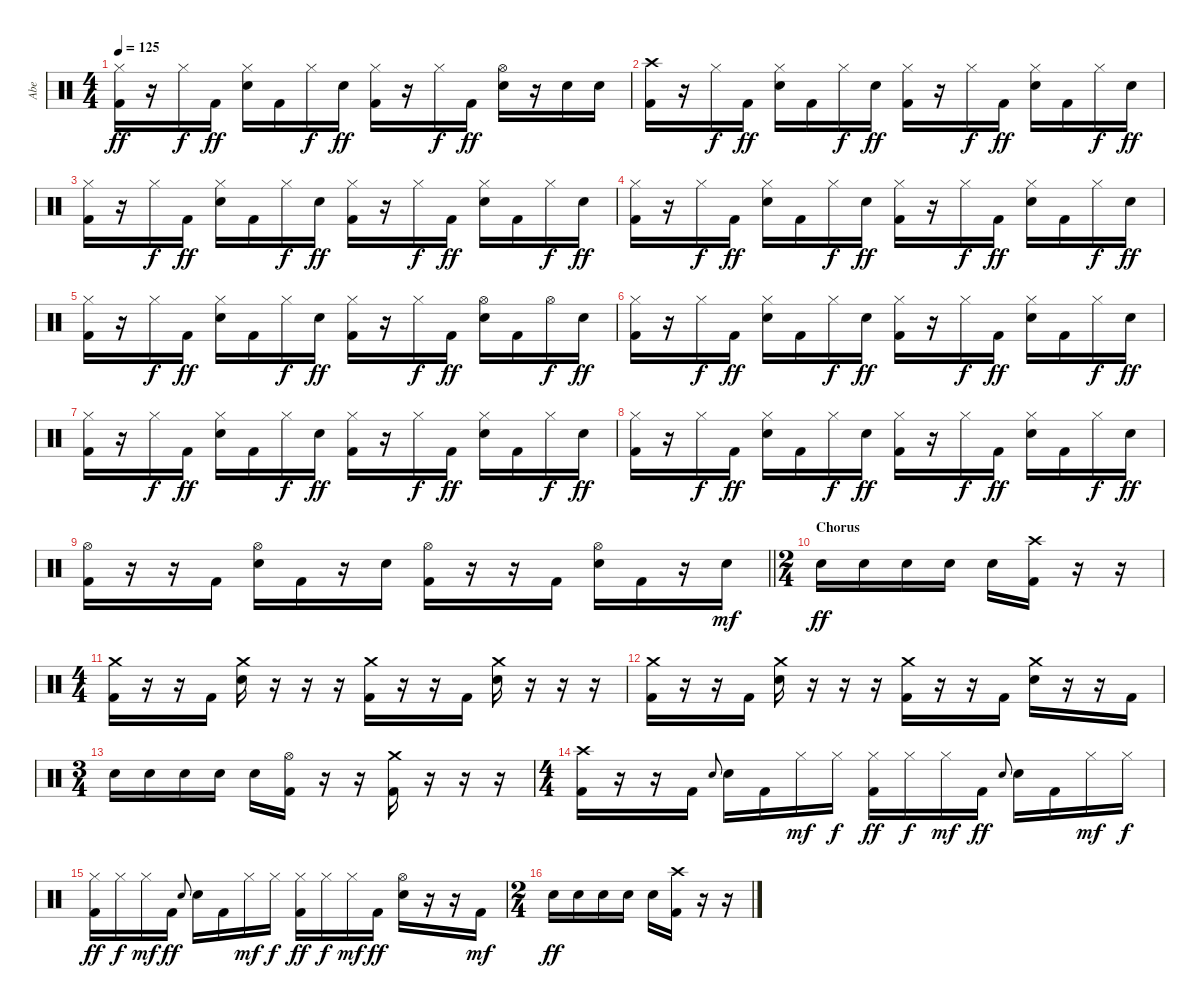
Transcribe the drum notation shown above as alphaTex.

\track ("Abe" "Abe") {instrument percussion}
\staff {score}
\articulation defaults
\ts (4 4)
\tempo 125
\clef neutral
\ks c
("Hi-Hat (closed)" "Kick (hit) 2").16{dy ff} r.16 "Hi-Hat (closed)".16{dy f} "Kick (hit) 2".16{dy ff} ("Hi-Hat (closed)" "Electric Snare (hit)").16 "Kick (hit) 2".16 "Hi-Hat (closed)".16{dy f} "Electric Snare (hit)".16{dy ff} ("Hi-Hat (closed)" "Kick (hit) 2").16 r.16 "Hi-Hat (closed)".16{dy f} "Kick (hit) 2".16{dy ff} ("Hi-Hat (open)" "Electric Snare (hit)").16 r.16 "Electric Snare (hit)".16 "Electric Snare (hit)".16 |
("Crash high (hit)" "Kick (hit) 2").16 r.16 "Hi-Hat (closed)".16{dy f} "Kick (hit) 2".16{dy ff} ("Hi-Hat (closed)" "Electric Snare (hit)").16 "Kick (hit) 2".16 "Hi-Hat (closed)".16{dy f} "Electric Snare (hit)".16{dy ff} ("Hi-Hat (closed)" "Kick (hit) 2").16 r.16 "Hi-Hat (closed)".16{dy f} "Kick (hit) 2".16{dy ff} ("Hi-Hat (closed)" "Electric Snare (hit)").16 "Kick (hit) 2".16 "Hi-Hat (closed)".16{dy f} "Electric Snare (hit)".16{dy ff} |
("Hi-Hat (closed)" "Kick (hit) 2").16 r.16 "Hi-Hat (closed)".16{dy f} "Kick (hit) 2".16{dy ff} ("Hi-Hat (closed)" "Electric Snare (hit)").16 "Kick (hit) 2".16 "Hi-Hat (closed)".16{dy f} "Electric Snare (hit)".16{dy ff} ("Hi-Hat (closed)" "Kick (hit) 2").16 r.16 "Hi-Hat (closed)".16{dy f} "Kick (hit) 2".16{dy ff} ("Hi-Hat (closed)" "Electric Snare (hit)").16 "Kick (hit) 2".16 "Hi-Hat (closed)".16{dy f} "Electric Snare (hit)".16{dy ff} |
("Hi-Hat (closed)" "Kick (hit) 2").16 r.16 "Hi-Hat (closed)".16{dy f} "Kick (hit) 2".16{dy ff} ("Hi-Hat (closed)" "Electric Snare (hit)").16 "Kick (hit) 2".16 "Hi-Hat (closed)".16{dy f} "Electric Snare (hit)".16{dy ff} ("Hi-Hat (closed)" "Kick (hit) 2").16 r.16 "Hi-Hat (closed)".16{dy f} "Kick (hit) 2".16{dy ff} ("Hi-Hat (closed)" "Electric Snare (hit)").16 "Kick (hit) 2".16 "Hi-Hat (closed)".16{dy f} "Electric Snare (hit)".16{dy ff} |
("Hi-Hat (closed)" "Kick (hit) 2").16 r.16 "Hi-Hat (closed)".16{dy f} "Kick (hit) 2".16{dy ff} ("Hi-Hat (closed)" "Electric Snare (hit)").16 "Kick (hit) 2".16 "Hi-Hat (closed)".16{dy f} "Electric Snare (hit)".16{dy ff} ("Hi-Hat (closed)" "Kick (hit) 2").16 r.16 "Hi-Hat (closed)".16{dy f} "Kick (hit) 2".16{dy ff} ("Hi-Hat (open)" "Electric Snare (hit)").16 "Kick (hit) 2".16 "Hi-Hat (open)".16{dy f} "Electric Snare (hit)".16{dy ff} |
("Hi-Hat (closed)" "Kick (hit) 2").16 r.16 "Hi-Hat (closed)".16{dy f} "Kick (hit) 2".16{dy ff} ("Hi-Hat (closed)" "Electric Snare (hit)").16 "Kick (hit) 2".16 "Hi-Hat (closed)".16{dy f} "Electric Snare (hit)".16{dy ff} ("Hi-Hat (closed)" "Kick (hit) 2").16 r.16 "Hi-Hat (closed)".16{dy f} "Kick (hit) 2".16{dy ff} ("Hi-Hat (closed)" "Electric Snare (hit)").16 "Kick (hit) 2".16 "Hi-Hat (closed)".16{dy f} "Electric Snare (hit)".16{dy ff} |
("Hi-Hat (closed)" "Kick (hit) 2").16 r.16 "Hi-Hat (closed)".16{dy f} "Kick (hit) 2".16{dy ff} ("Hi-Hat (closed)" "Electric Snare (hit)").16 "Kick (hit) 2".16 "Hi-Hat (closed)".16{dy f} "Electric Snare (hit)".16{dy ff} ("Hi-Hat (closed)" "Kick (hit) 2").16 r.16 "Hi-Hat (closed)".16{dy f} "Kick (hit) 2".16{dy ff} ("Hi-Hat (closed)" "Electric Snare (hit)").16 "Kick (hit) 2".16 "Hi-Hat (closed)".16{dy f} "Electric Snare (hit)".16{dy ff} |
("Hi-Hat (closed)" "Kick (hit) 2").16 r.16 "Hi-Hat (closed)".16{dy f} "Kick (hit) 2".16{dy ff} ("Hi-Hat (closed)" "Electric Snare (hit)").16 "Kick (hit) 2".16 "Hi-Hat (closed)".16{dy f} "Electric Snare (hit)".16{dy ff} ("Hi-Hat (closed)" "Kick (hit) 2").16 r.16 "Hi-Hat (closed)".16{dy f} "Kick (hit) 2".16{dy ff} ("Hi-Hat (closed)" "Electric Snare (hit)").16 "Kick (hit) 2".16 "Hi-Hat (closed)".16{dy f} "Electric Snare (hit)".16{dy ff} |
\barLineRight lightlight
("Hi-Hat (open)" "Kick (hit) 2").16 r.16 r.16 "Kick (hit) 2".16 ("Hi-Hat (open)" "Electric Snare (hit)").16 "Kick (hit) 2".16 r.16 "Electric Snare (hit)".16 ("Hi-Hat (open)" "Kick (hit) 2").16 r.16 r.16 "Kick (hit) 2".16 ("Hi-Hat (open)" "Electric Snare (hit)").16 "Kick (hit) 2".16 r.16 "Electric Snare (hit)".16{dy mf} |
\ts (2 4)
\section ("" "Chorus")
"Electric Snare (hit)".16{dy ff} "Electric Snare (hit)".16 "Electric Snare (hit)".16 "Electric Snare (hit)".16 "Electric Snare (hit)".16 ("Crash high (hit)" "Kick (hit) 2").16 r.16 r.16 |
\ts (4 4)
("Crash medium (hit)" "Kick (hit) 2").16 r.16 r.16 "Kick (hit) 2".16 ("Crash medium (hit)" "Electric Snare (hit)").16 r.16 r.16 r.16 ("Crash medium (hit)" "Kick (hit) 2").16 r.16 r.16 "Kick (hit) 2".16 ("Crash medium (hit)" "Electric Snare (hit)").16 r.16 r.16 r.16 |
("Crash medium (hit)" "Kick (hit) 2").16 r.16 r.16 "Kick (hit) 2".16 ("Crash medium (hit)" "Electric Snare (hit)").16 r.16 r.16 r.16 ("Crash medium (hit)" "Kick (hit) 2").16 r.16 r.16 "Kick (hit) 2".16 ("Crash medium (hit)" "Electric Snare (hit)").16 r.16 r.16 "Kick (hit) 2".16 |
\ts (3 4)
"Electric Snare (hit)".16 "Electric Snare (hit)".16 "Electric Snare (hit)".16 "Electric Snare (hit)".16 "Electric Snare (hit)".16 ("Hi-Hat (open)" "Kick (hit) 2").16 r.16 r.16 ("Crash medium (hit)" "Kick (hit) 2").16 r.16 r.16 r.16 |
\ts (4 4)
("Crash high (hit)" "Kick (hit) 2").16 r.16 r.16 "Kick (hit) 2".16 "Electric Snare (hit)".8{gr onbeat} "Electric Snare (hit)".16 "Kick (hit) 2".16 "Hi-Hat (closed)".16{dy mf} "Hi-Hat (closed)".16{dy f} ("Hi-Hat (closed)" "Kick (hit) 2").16{dy ff} "Hi-Hat (closed)".16{dy f} "Hi-Hat (closed)".16{dy mf} "Kick (hit) 2".16{dy ff} "Electric Snare (hit)".8{gr onbeat} "Electric Snare (hit)".16 "Kick (hit) 2".16 "Hi-Hat (closed)".16{dy mf} "Hi-Hat (closed)".16{dy f} |
("Hi-Hat (closed)" "Kick (hit) 2").16{dy ff} "Hi-Hat (closed)".16{dy f} "Hi-Hat (closed)".16{dy mf} "Kick (hit) 2".16{dy ff} "Electric Snare (hit)".8{gr onbeat} "Electric Snare (hit)".16 "Kick (hit) 2".16 "Hi-Hat (closed)".16{dy mf} "Hi-Hat (closed)".16{dy f} ("Hi-Hat (closed)" "Kick (hit) 2").16{dy ff} "Hi-Hat (closed)".16{dy f} "Hi-Hat (closed)".16{dy mf} "Kick (hit) 2".16{dy ff} ("Hi-Hat (open)" "Electric Snare (hit)").16 r.16 r.16 "Kick (hit) 2".16{dy mf} |
\ts (2 4)
"Electric Snare (hit)".16{dy ff} "Electric Snare (hit)".16 "Electric Snare (hit)".16 "Electric Snare (hit)".16 "Electric Snare (hit)".16 ("Crash high (hit)" "Kick (hit) 2").16 r.16 r.16
